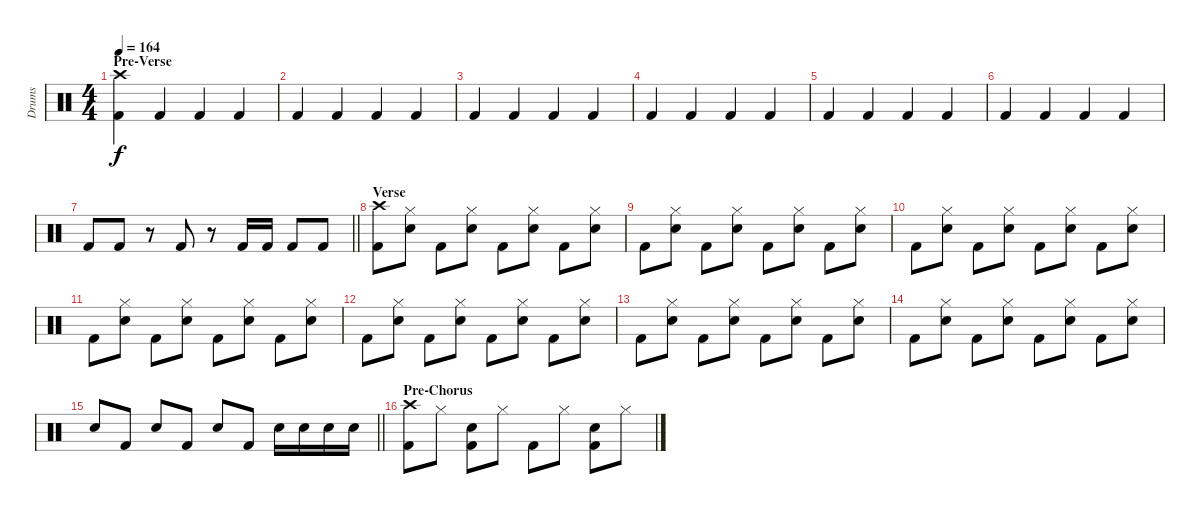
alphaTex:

\track ("Drums" "Drums") {instrument percussion}
\staff {score}
\articulation defaults
\ts (4 4)
\section ("" "Pre-Verse")
\tempo 164
\clef neutral
\ks c
("Crash high (hit)" "Kick (hit) 2").4{dy f} "Kick (hit) 2".4 "Kick (hit) 2".4 "Kick (hit) 2".4 |
"Kick (hit) 2".4 "Kick (hit) 2".4 "Kick (hit) 2".4 "Kick (hit) 2".4 |
"Kick (hit) 2".4 "Kick (hit) 2".4 "Kick (hit) 2".4 "Kick (hit) 2".4 |
"Kick (hit) 2".4 "Kick (hit) 2".4 "Kick (hit) 2".4 "Kick (hit) 2".4 |
"Kick (hit) 2".4 "Kick (hit) 2".4 "Kick (hit) 2".4 "Kick (hit) 2".4 |
"Kick (hit) 2".4 "Kick (hit) 2".4 "Kick (hit) 2".4 "Kick (hit) 2".4 |
\barLineRight lightlight "Kick (hit) 2".8 "Kick (hit) 2".8
r.8 "Kick (hit) 2".8 r.8 "Kick (hit) 2".16 "Kick (hit) 2".16 "Kick (hit) 2".8 "Kick (hit) 2".8 |
\section ("" "Verse")
("Crash high (hit)" "Kick (hit) 2").8 ("Hi-Hat (closed)" "Electric Snare (hit)").8 "Kick (hit) 2".8 ("Hi-Hat (closed)" "Electric Snare (hit)").8 "Kick (hit) 2".8 ("Hi-Hat (closed)" "Electric Snare (hit)").8 "Kick (hit) 2".8 ("Hi-Hat (closed)" "Electric Snare (hit)").8 |
"Kick (hit) 2".8 ("Hi-Hat (closed)" "Electric Snare (hit)").8 "Kick (hit) 2".8 ("Hi-Hat (closed)" "Electric Snare (hit)").8 "Kick (hit) 2".8 ("Hi-Hat (closed)" "Electric Snare (hit)").8 "Kick (hit) 2".8 ("Hi-Hat (closed)" "Electric Snare (hit)").8 |
"Kick (hit) 2".8 ("Hi-Hat (closed)" "Electric Snare (hit)").8 "Kick (hit) 2".8 ("Hi-Hat (closed)" "Electric Snare (hit)").8 "Kick (hit) 2".8 ("Hi-Hat (closed)" "Electric Snare (hit)").8 "Kick (hit) 2".8 ("Hi-Hat (closed)" "Electric Snare (hit)").8 |
"Kick (hit) 2".8 ("Hi-Hat (closed)" "Electric Snare (hit)").8 "Kick (hit) 2".8 ("Hi-Hat (closed)" "Electric Snare (hit)").8 "Kick (hit) 2".8 ("Hi-Hat (closed)" "Electric Snare (hit)").8 "Kick (hit) 2".8 ("Hi-Hat (closed)" "Electric Snare (hit)").8 |
"Kick (hit) 2".8 ("Hi-Hat (closed)" "Electric Snare (hit)").8 "Kick (hit) 2".8 ("Hi-Hat (closed)" "Electric Snare (hit)").8 "Kick (hit) 2".8 ("Hi-Hat (closed)" "Electric Snare (hit)").8 "Kick (hit) 2".8 ("Hi-Hat (closed)" "Electric Snare (hit)").8 |
"Kick (hit) 2".8 ("Hi-Hat (closed)" "Electric Snare (hit)").8 "Kick (hit) 2".8 ("Hi-Hat (closed)" "Electric Snare (hit)").8 "Kick (hit) 2".8 ("Hi-Hat (closed)" "Electric Snare (hit)").8 "Kick (hit) 2".8 ("Hi-Hat (closed)" "Electric Snare (hit)").8 |
"Kick (hit) 2".8 ("Hi-Hat (closed)" "Electric Snare (hit)").8 "Kick (hit) 2".8 ("Hi-Hat (closed)" "Electric Snare (hit)").8 "Kick (hit) 2".8 ("Hi-Hat (closed)" "Electric Snare (hit)").8 "Kick (hit) 2".8 ("Hi-Hat (closed)" "Electric Snare (hit)").8 |
\barLineRight lightlight "Electric Snare (hit)".8 "Kick (hit) 2".8 "Electric Snare (hit)".8 "Kick (hit) 2".8 "Electric Snare (hit)".8 "Kick (hit) 2".8 "Electric Snare (hit)".16 "Electric Snare (hit)".16 "Electric Snare (hit)".16 "Electric Snare (hit)".16
|
\section ("" "Pre-Chorus")
("Crash high (hit)" "Kick (hit) 2").8 "Hi-Hat (closed)".8 ("Electric Snare (hit)" "Kick (hit) 2").8 "Hi-Hat (closed)".8 "Kick (hit) 2".8 "Hi-Hat (closed)".8 ("Electric Snare (hit)" "Kick (hit) 2").8 "Hi-Hat (closed)".8
